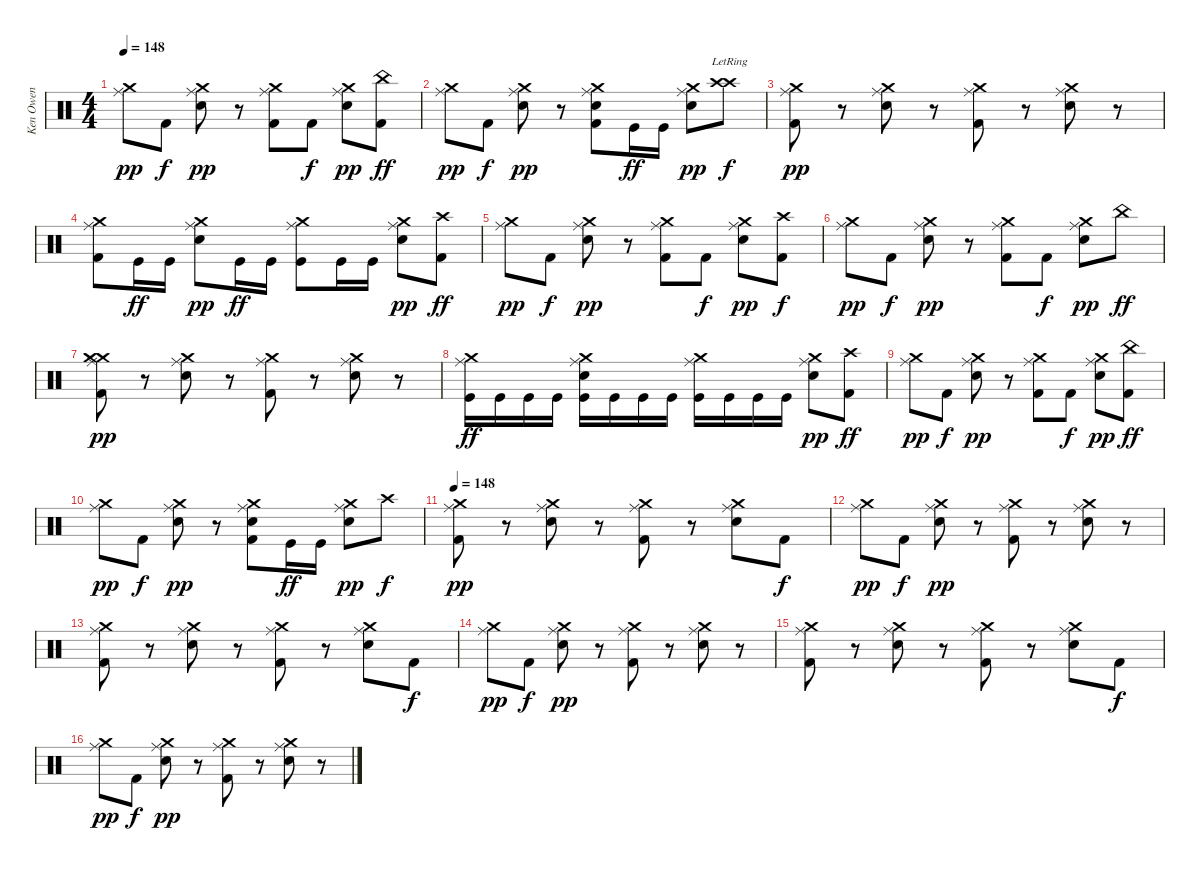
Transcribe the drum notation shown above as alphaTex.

\track ("Ken Owen" "Ken Owen") {instrument percussion}
\staff {score}
\articulation defaults
\ts (4 4)
\tempo 148
\clef neutral
\ks c
("Crash medium (hit)" "Ride (middle)").8{dy pp} "Kick (hit) 2".8{dy f} ("Crash medium (hit)" "Ride (middle)" "Snare (hit) 2").8{dy pp} r.8 ("Crash medium (hit)" "Ride (middle)" "Kick (hit) 2").8 "Kick (hit) 2".8{dy f} ("Crash medium (hit)" "Ride (middle)" "Snare (hit) 2").8{dy pp} ("Kick (hit) 2" "China (hit)").8{dy ff} |
("Crash medium (hit)" "Ride (middle)").8{dy pp} "Kick (hit) 2".8{dy f} ("Crash medium (hit)" "Ride (middle)" "Snare (hit) 2").8{dy pp} r.8 ("Crash medium (hit)" "Ride (middle)" "Kick (hit) 2" "Snare (hit) 2").8 "Kick (hit)".16{dy ff} "Kick (hit)".16 ("Crash medium (hit)" "Ride (middle)" "Snare (hit) 2").8{dy pp} ("Crash high (hit)"{lr} "Crash high (hit)"{lr}).8{dy f} |
("Crash medium (hit)" "Ride (middle)" "Kick (hit) 2").8{dy pp} r.8 ("Crash medium (hit)" "Ride (middle)" "Snare (hit) 2").8 r.8 ("Crash medium (hit)" "Ride (middle)" "Kick (hit) 2").8 r.8 ("Crash medium (hit)" "Ride (middle)" "Snare (hit) 2").8 r.8 |
("Crash medium (hit)" "Ride (middle)" "Kick (hit) 2").8 "Kick (hit)".16{dy ff} "Kick (hit)".16 ("Crash medium (hit)" "Ride (middle)" "Snare (hit) 2").8{dy pp} "Kick (hit)".16{dy ff} "Kick (hit)".16 ("Crash medium (hit)" "Ride (middle)" "Kick (hit)").8 "Kick (hit)".16 "Kick (hit)".16 ("Crash medium (hit)" "Ride (middle)" "Snare (hit) 2").8{dy pp} ("Kick (hit) 2" "Crash high (hit)").8{dy ff} |
("Crash medium (hit)" "Ride (middle)").8{dy pp} "Kick (hit) 2".8{dy f} ("Crash medium (hit)" "Ride (middle)" "Snare (hit) 2").8{dy pp} r.8 ("Crash medium (hit)" "Ride (middle)" "Kick (hit) 2").8 "Kick (hit) 2".8{dy f} ("Crash medium (hit)" "Ride (middle)" "Snare (hit) 2").8{dy pp} ("Kick (hit) 2" "Crash high (hit)").8{dy f} |
("Crash medium (hit)" "Ride (middle)").8{dy pp} "Kick (hit) 2".8{dy f} ("Crash medium (hit)" "Ride (middle)" "Snare (hit) 2").8{dy pp} r.8 ("Crash medium (hit)" "Ride (middle)" "Kick (hit) 2").8 "Kick (hit) 2".8{dy f} ("Crash medium (hit)" "Ride (middle)" "Snare (hit) 2").8{dy pp} "China (hit)".8{dy ff} |
("Crash medium (hit)" "Ride (middle)" "Kick (hit) 2" "Crash medium (hit)").8{dy pp} r.8 ("Crash medium (hit)" "Ride (middle)" "Snare (hit) 2").8 r.8 ("Crash medium (hit)" "Ride (middle)" "Kick (hit) 2").8 r.8 ("Crash medium (hit)" "Ride (middle)" "Snare (hit) 2").8 r.8 |
("Crash medium (hit)" "Ride (middle)" "Kick (hit)").16{dy ff} "Kick (hit)".16 "Kick (hit)".16 "Kick (hit)".16 ("Crash medium (hit)" "Ride (middle)" "Kick (hit)" "Snare (hit) 2").16 "Kick (hit)".16 "Kick (hit)".16 "Kick (hit)".16 ("Crash medium (hit)" "Ride (middle)" "Kick (hit)").16 "Kick (hit)".16 "Kick (hit)".16 "Kick (hit)".16 ("Crash medium (hit)" "Ride (middle)" "Snare (hit) 2").8{dy pp} ("Kick (hit) 2" "Crash high (hit)").8{dy ff} |
("Crash medium (hit)" "Ride (middle)").8{dy pp} "Kick (hit) 2".8{dy f} ("Crash medium (hit)" "Ride (middle)" "Snare (hit) 2").8{dy pp} r.8 ("Crash medium (hit)" "Ride (middle)" "Kick (hit) 2").8 "Kick (hit) 2".8{dy f} ("Crash medium (hit)" "Ride (middle)" "Snare (hit) 2").8{dy pp} ("Kick (hit) 2" "China (hit)").8{dy ff} |
("Crash medium (hit)" "Ride (middle)").8{dy pp} "Kick (hit) 2".8{dy f} ("Crash medium (hit)" "Ride (middle)" "Snare (hit) 2").8{dy pp} r.8 ("Crash medium (hit)" "Ride (middle)" "Kick (hit) 2" "Snare (hit) 2").8 "Kick (hit)".16{dy ff} "Kick (hit)".16 ("Crash medium (hit)" "Ride (middle)" "Snare (hit) 2").8{dy pp} "Crash high (hit)".8{dy f} |
\tempo 148
("Crash medium (hit)" "Ride (middle)" "Kick (hit) 2").8{dy pp} r.8 ("Crash medium (hit)" "Ride (middle)" "Snare (hit) 2").8 r.8 ("Crash medium (hit)" "Ride (middle)" "Kick (hit) 2").8 r.8 ("Crash medium (hit)" "Ride (middle)" "Snare (hit) 2").8 "Kick (hit) 2".8{dy f} |
("Crash medium (hit)" "Ride (middle)").8{dy pp} "Kick (hit) 2".8{dy f} ("Crash medium (hit)" "Ride (middle)" "Snare (hit) 2").8{dy pp} r.8 ("Crash medium (hit)" "Ride (middle)" "Kick (hit) 2").8 r.8 ("Crash medium (hit)" "Ride (middle)" "Snare (hit) 2").8 r.8 |
("Crash medium (hit)" "Ride (middle)" "Kick (hit) 2").8 r.8 ("Crash medium (hit)" "Ride (middle)" "Snare (hit) 2").8 r.8 ("Crash medium (hit)" "Ride (middle)" "Kick (hit) 2").8 r.8 ("Crash medium (hit)" "Ride (middle)" "Snare (hit) 2").8 "Kick (hit) 2".8{dy f} |
("Crash medium (hit)" "Ride (middle)").8{dy pp} "Kick (hit) 2".8{dy f} ("Crash medium (hit)" "Ride (middle)" "Snare (hit) 2").8{dy pp} r.8 ("Crash medium (hit)" "Ride (middle)" "Kick (hit) 2").8 r.8 ("Crash medium (hit)" "Ride (middle)" "Snare (hit) 2").8 r.8 |
("Crash medium (hit)" "Ride (middle)" "Kick (hit) 2").8 r.8 ("Crash medium (hit)" "Ride (middle)" "Snare (hit) 2").8 r.8 ("Crash medium (hit)" "Ride (middle)" "Kick (hit) 2").8 r.8 ("Crash medium (hit)" "Ride (middle)" "Snare (hit) 2").8 "Kick (hit) 2".8{dy f} |
("Crash medium (hit)" "Ride (middle)").8{dy pp} "Kick (hit) 2".8{dy f} ("Crash medium (hit)" "Ride (middle)" "Snare (hit) 2").8{dy pp} r.8 ("Crash medium (hit)" "Ride (middle)" "Kick (hit) 2").8 r.8 ("Crash medium (hit)" "Ride (middle)" "Snare (hit) 2").8 r.8
